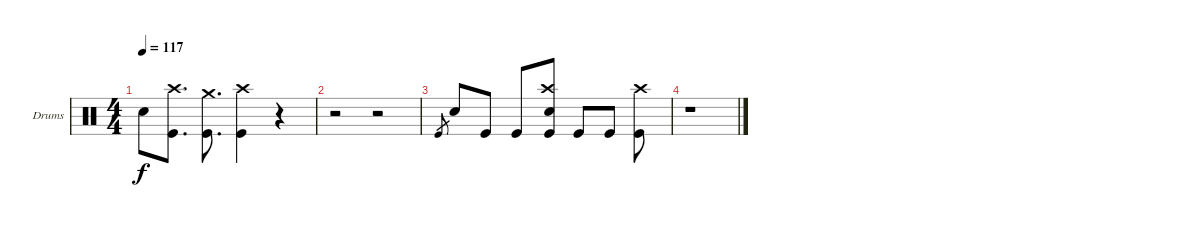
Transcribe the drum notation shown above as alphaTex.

\bracketExtendMode groupsimilarinstruments
\firstSystemTrackNameOrientation horizontal
\otherSystemsTrackNameOrientation horizontal
\track ("Dominic Drums" "Drums") {instrument percussion}
\staff {score}
\articulation defaults
\ts (4 4)
\tempo 117
\clef neutral
\ks c "Snare (hit) 2".8{dy f}
("Crash high (hit)" "Kick (hit)").8{d} ("Crash medium (hit)" "Kick (hit)").8{d} ("Crash high (hit)" "Kick (hit)").4 r.4 |
r.2 r.2 |
"Kick (hit)".8{gr} "Snare (hit) 2".8 "Kick (hit)".8 "Kick (hit)".8 ("Snare (hit) 2" "Crash high (hit)" "Kick (hit)").8 "Kick (hit)".8 "Kick (hit)".8 ("Crash high (hit)" "Kick (hit)").8 |
r.1
